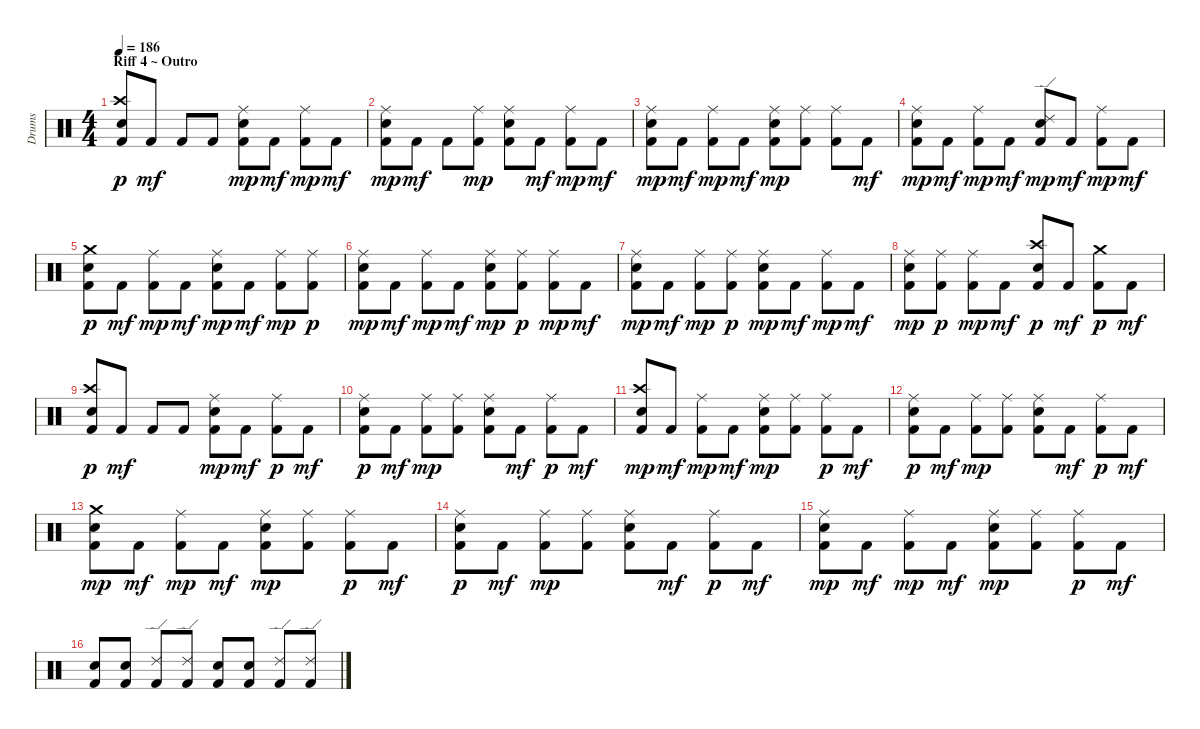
\track ("Drums" "Drums") {instrument percussion}
\staff {score}
\articulation defaults
\ts (4 4)
\section ("" "Riff 4 ~ Outro")
\tempo 186
\clef neutral
\ks c
("Kick (hit) 2" "Crash high (hit)" "Snare (hit) 2").8{dy p} "Kick (hit) 2".8{dy mf} "Kick (hit) 2".8 "Kick (hit) 2".8 ("Kick (hit) 2" "Ride (middle)" "Snare (hit) 2").8{dy mp} "Kick (hit) 2".8{dy mf} ("Kick (hit) 2" "Ride (middle)").8{dy mp} "Kick (hit) 2".8{dy mf} |
("Kick (hit) 2" "Ride (middle)" "Snare (hit) 2").8{dy mp} "Kick (hit) 2".8{dy mf} "Kick (hit) 2".8 ("Kick (hit) 2" "Ride (middle)").8{dy mp} ("Kick (hit) 2" "Ride (middle)" "Snare (hit) 2").8 "Kick (hit) 2".8{dy mf} ("Kick (hit) 2" "Ride (middle)").8{dy mp} "Kick (hit) 2".8{dy mf} |
("Kick (hit) 2" "Ride (middle)" "Snare (hit) 2").8{dy mp} "Kick (hit) 2".8{dy mf} ("Kick (hit) 2" "Ride (middle)").8{dy mp} "Kick (hit) 2".8{dy mf} ("Kick (hit) 2" "Ride (middle)" "Snare (hit) 2").8{dy mp} ("Kick (hit) 2" "Ride (middle)").8 ("Kick (hit) 2" "Ride (middle)").8 "Kick (hit) 2".8{dy mf} |
("Kick (hit) 2" "Ride (middle)" "Snare (hit) 2").8{dy mp} "Kick (hit) 2".8{dy mf} ("Kick (hit) 2" "Ride (middle)").8{dy mp} "Kick (hit) 2".8{dy mf} ("Kick (hit) 2" "Ride (edge) 2" "Snare (hit) 2").8{dy mp} "Kick (hit) 2".8{dy mf} ("Kick (hit) 2" "Ride (middle)").8{dy mp} "Kick (hit) 2".8{dy mf} |
("Kick (hit) 2" "Crash medium (hit)" "Snare (hit) 2").8{dy p} "Kick (hit) 2".8{dy mf} ("Kick (hit) 2" "Ride (middle)").8{dy mp} "Kick (hit) 2".8{dy mf} ("Kick (hit) 2" "Ride (middle)" "Snare (hit) 2").8{dy mp} "Kick (hit) 2".8{dy mf} ("Kick (hit) 2" "Ride (middle)").8{dy mp} ("Kick (hit) 2" "Ride (middle)").8{dy p} |
("Kick (hit) 2" "Ride (middle)" "Snare (hit) 2").8{dy mp} "Kick (hit) 2".8{dy mf} ("Kick (hit) 2" "Ride (middle)").8{dy mp} "Kick (hit) 2".8{dy mf} ("Kick (hit) 2" "Ride (middle)" "Snare (hit) 2").8{dy mp} ("Kick (hit) 2" "Ride (middle)").8{dy p} ("Kick (hit) 2" "Ride (middle)").8{dy mp} "Kick (hit) 2".8{dy mf} |
("Kick (hit) 2" "Ride (middle)" "Snare (hit) 2").8{dy mp} "Kick (hit) 2".8{dy mf} ("Kick (hit) 2" "Ride (middle)").8{dy mp} ("Kick (hit) 2" "Ride (middle)").8{dy p} ("Kick (hit) 2" "Ride (middle)" "Snare (hit) 2").8{dy mp} "Kick (hit) 2".8{dy mf} ("Kick (hit) 2" "Ride (middle)").8{dy mp} "Kick (hit) 2".8{dy mf} |
("Kick (hit) 2" "Ride (middle)" "Snare (hit) 2").8{dy mp} ("Kick (hit) 2" "Ride (middle)").8{dy p} ("Kick (hit) 2" "Ride (middle)").8{dy mp} "Kick (hit) 2".8{dy mf} ("Kick (hit) 2" "Crash high (hit)" "Snare (hit) 2").8{dy p} "Kick (hit) 2".8{dy mf} ("Kick (hit) 2" "Crash medium (hit)").8{dy p} "Kick (hit) 2".8{dy mf} |
("Kick (hit) 2" "Crash high (hit)" "Snare (hit) 2").8{dy p} "Kick (hit) 2".8{dy mf} "Kick (hit) 2".8 "Kick (hit) 2".8 ("Kick (hit) 2" "Ride (middle)" "Snare (hit) 2").8{dy mp} "Kick (hit) 2".8{dy mf} ("Kick (hit) 2" "Ride (middle)").8{dy p} "Kick (hit) 2".8{dy mf} |
("Kick (hit) 2" "Ride (middle)" "Snare (hit) 2").8{dy p} "Kick (hit) 2".8{dy mf} ("Kick (hit) 2" "Ride (middle)").8{dy mp} ("Kick (hit) 2" "Ride (middle)").8 ("Kick (hit) 2" "Ride (middle)" "Snare (hit) 2").8 "Kick (hit) 2".8{dy mf} ("Kick (hit) 2" "Ride (middle)").8{dy p} "Kick (hit) 2".8{dy mf} |
("Kick (hit) 2" "Crash high (hit)" "Snare (hit) 2").8{dy mp} "Kick (hit) 2".8{dy mf} ("Kick (hit) 2" "Ride (middle)").8{dy mp} "Kick (hit) 2".8{dy mf} ("Kick (hit) 2" "Ride (middle)" "Snare (hit) 2").8{dy mp} ("Kick (hit) 2" "Ride (middle)").8 ("Kick (hit) 2" "Ride (middle)").8{dy p} "Kick (hit) 2".8{dy mf} |
("Kick (hit) 2" "Ride (middle)" "Snare (hit) 2").8{dy p} "Kick (hit) 2".8{dy mf} ("Kick (hit) 2" "Ride (middle)").8{dy mp} ("Kick (hit) 2" "Ride (middle)").8 ("Kick (hit) 2" "Ride (middle)" "Snare (hit) 2").8 "Kick (hit) 2".8{dy mf} ("Kick (hit) 2" "Ride (middle)").8{dy p} "Kick (hit) 2".8{dy mf} |
("Kick (hit) 2" "Crash medium (hit)" "Snare (hit) 2").8{dy mp} "Kick (hit) 2".8{dy mf} ("Kick (hit) 2" "Ride (middle)").8{dy mp} "Kick (hit) 2".8{dy mf} ("Kick (hit) 2" "Ride (middle)" "Snare (hit) 2").8{dy mp} ("Kick (hit) 2" "Ride (middle)").8 ("Kick (hit) 2" "Ride (middle)").8{dy p} "Kick (hit) 2".8{dy mf} |
("Kick (hit) 2" "Ride (middle)" "Snare (hit) 2").8{dy p} "Kick (hit) 2".8{dy mf} ("Kick (hit) 2" "Ride (middle)").8{dy mp} ("Kick (hit) 2" "Ride (middle)").8 ("Kick (hit) 2" "Ride (middle)" "Snare (hit) 2").8 "Kick (hit) 2".8{dy mf} ("Kick (hit) 2" "Ride (middle)").8{dy p} "Kick (hit) 2".8{dy mf} |
("Kick (hit) 2" "Ride (middle)" "Snare (hit) 2").8{dy mp} "Kick (hit) 2".8{dy mf} ("Kick (hit) 2" "Ride (middle)").8{dy mp} "Kick (hit) 2".8{dy mf} ("Kick (hit) 2" "Ride (middle)" "Snare (hit) 2").8{dy mp} ("Kick (hit) 2" "Ride (middle)").8 ("Kick (hit) 2" "Ride (middle)").8{dy p} "Kick (hit) 2".8{dy mf} |
("Kick (hit) 2" "Snare (hit) 2").8 ("Kick (hit) 2" "Snare (hit) 2").8 ("Kick (hit) 2" "Ride (edge) 2").8 ("Kick (hit) 2" "Ride (edge) 2").8 ("Kick (hit) 2" "Snare (hit) 2").8 ("Kick (hit) 2" "Snare (hit) 2").8 ("Kick (hit) 2" "Ride (edge) 2").8 ("Kick (hit) 2" "Ride (edge) 2").8
